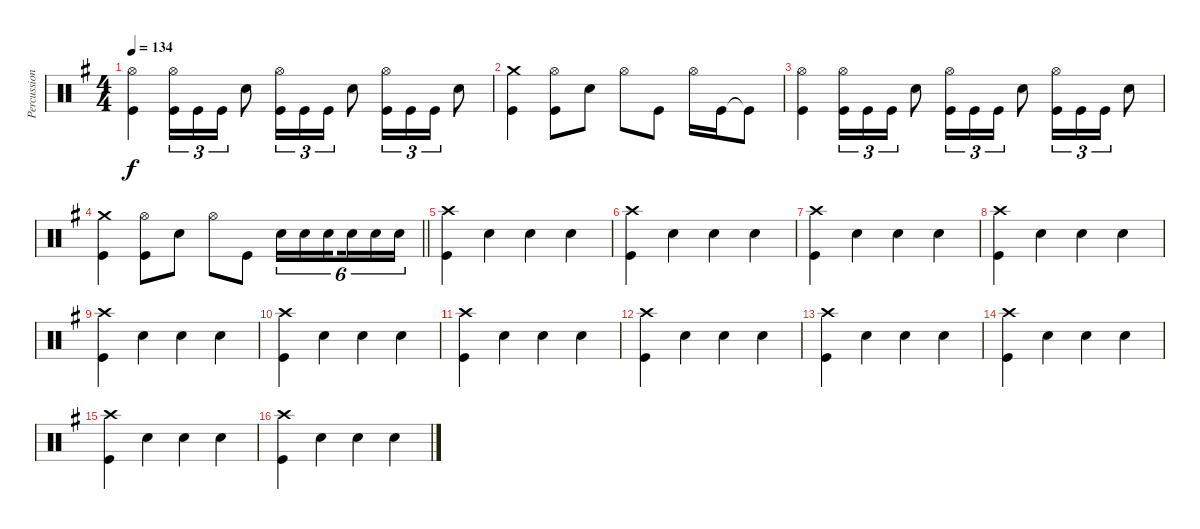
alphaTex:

\track ("Percussion" "Percussion") {instrument percussion}
\staff {score}
\articulation defaults
\ts (4 4)
\tempo 134
\clef neutral
\ks g
("Hi-Hat (open)" "Kick (hit)").4{dy f} ("Hi-Hat (open)" "Kick (hit)").16{tu (3 2)} "Kick (hit)".16{tu (3 2)} "Kick (hit)".16{tu (3 2)} "Snare (hit) 2".8 ("Hi-Hat (open)" "Kick (hit)").16{tu (3 2)} "Kick (hit)".16{tu (3 2)} "Kick (hit)".16{tu (3 2)} "Snare (hit) 2".8 ("Hi-Hat (open)" "Kick (hit)").16{tu (3 2)} "Kick (hit)".16{tu (3 2)} "Kick (hit)".16{tu (3 2)} "Snare (hit) 2".8 |
("Crash medium (hit)" "Kick (hit)").4 ("Hi-Hat (open)" "Kick (hit)").8 "Snare (hit) 2".8 "Hi-Hat (open)".8 "Kick (hit)".8 "Hi-Hat (open)".16 "Kick (hit)".16 "Kick (hit)"{t}.8 |
("Hi-Hat (open)" "Kick (hit)").4 ("Hi-Hat (open)" "Kick (hit)").16{tu (3 2)} "Kick (hit)".16{tu (3 2)} "Kick (hit)".16{tu (3 2)} "Snare (hit) 2".8 ("Hi-Hat (open)" "Kick (hit)").16{tu (3 2)} "Kick (hit)".16{tu (3 2)} "Kick (hit)".16{tu (3 2)} "Snare (hit) 2".8 ("Hi-Hat (open)" "Kick (hit)").16{tu (3 2)} "Kick (hit)".16{tu (3 2)} "Kick (hit)".16{tu (3 2)} "Snare (hit) 2".8 |
\barLineRight lightlight
("Crash medium (hit)" "Kick (hit)").4 ("Hi-Hat (open)" "Kick (hit)").8 "Snare (hit) 2".8 "Hi-Hat (open)".8 "Kick (hit)".8 "Snare (hit) 2".16{tu (6 4)} "Snare (hit) 2".16{tu (6 4)} "Snare (hit) 2".16{tu (6 4) beam splitsecondary} "Snare (hit) 2".16{tu (6 4)} "Snare (hit) 2".16{tu (6 4)} "Snare (hit) 2".16{tu (6 4)} |
("Crash high (hit)" "Kick (hit)").4 "Snare (hit) 2".4 "Snare (hit) 2".4 "Snare (hit) 2".4 |
("Crash high (hit)" "Kick (hit)").4 "Snare (hit) 2".4 "Snare (hit) 2".4 "Snare (hit) 2".4 |
("Crash high (hit)" "Kick (hit)").4 "Snare (hit) 2".4 "Snare (hit) 2".4 "Snare (hit) 2".4 |
("Crash high (hit)" "Kick (hit)").4 "Snare (hit) 2".4 "Snare (hit) 2".4 "Snare (hit) 2".4 |
("Crash high (hit)" "Kick (hit)").4 "Snare (hit) 2".4 "Snare (hit) 2".4 "Snare (hit) 2".4 |
("Crash high (hit)" "Kick (hit)").4 "Snare (hit) 2".4 "Snare (hit) 2".4 "Snare (hit) 2".4 |
("Crash high (hit)" "Kick (hit)").4 "Snare (hit) 2".4 "Snare (hit) 2".4 "Snare (hit) 2".4 |
("Crash high (hit)" "Kick (hit)").4 "Snare (hit) 2".4 "Snare (hit) 2".4 "Snare (hit) 2".4 |
("Crash high (hit)" "Kick (hit)").4 "Snare (hit) 2".4 "Snare (hit) 2".4 "Snare (hit) 2".4 |
("Crash high (hit)" "Kick (hit)").4 "Snare (hit) 2".4 "Snare (hit) 2".4 "Snare (hit) 2".4 |
("Crash high (hit)" "Kick (hit)").4 "Snare (hit) 2".4 "Snare (hit) 2".4 "Snare (hit) 2".4 |
("Crash high (hit)" "Kick (hit)").4 "Snare (hit) 2".4 "Snare (hit) 2".4 "Snare (hit) 2".4
